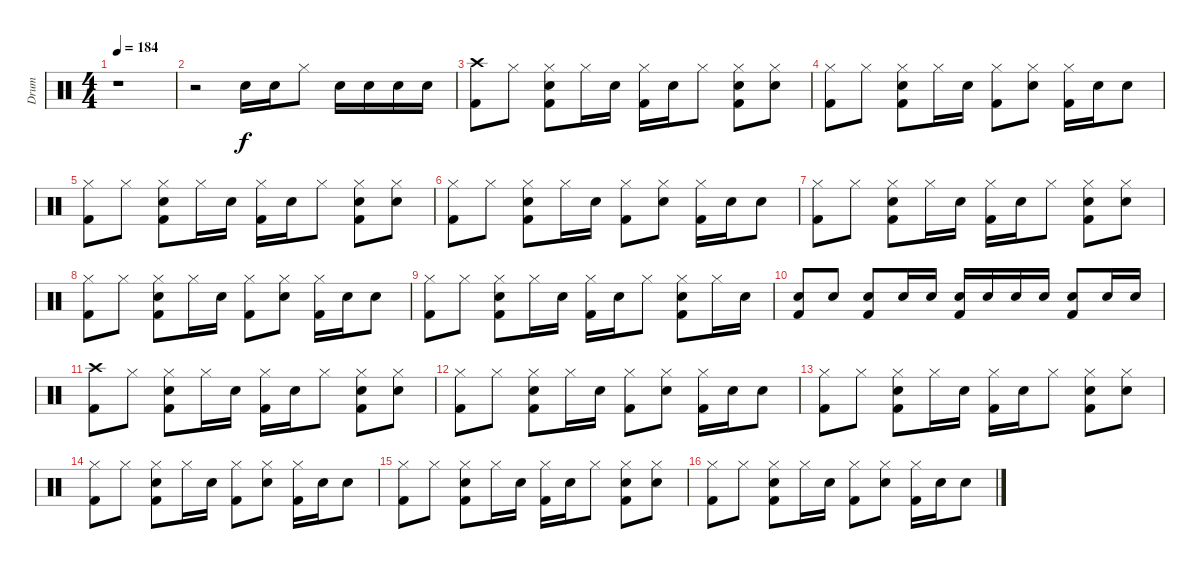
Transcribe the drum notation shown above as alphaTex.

\track ("Drum" "Drum") {instrument percussion}
\staff {score}
\articulation defaults
\ts (4 4)
\tempo 184
\clef neutral
\ks c
r.1{dy f} |
r.2 "Electric Snare (hit)".16 "Electric Snare (hit)".16 "Hi-Hat (closed)".8 "Electric Snare (hit)".16 "Electric Snare (hit)".16 "Electric Snare (hit)".16 "Electric Snare (hit)".16 |
("Crash high (hit)" "Kick (hit) 2").8 "Hi-Hat (closed)".8 ("Hi-Hat (closed)" "Electric Snare (hit)" "Kick (hit) 2").8 "Hi-Hat (closed)".16 "Electric Snare (hit)".16 ("Hi-Hat (closed)" "Kick (hit) 2").16 "Electric Snare (hit)".16 "Hi-Hat (closed)".8 ("Hi-Hat (closed)" "Electric Snare (hit)" "Kick (hit) 2").8 ("Hi-Hat (closed)" "Electric Snare (hit)").8 |
("Hi-Hat (closed)" "Kick (hit) 2").8 "Hi-Hat (closed)".8 ("Hi-Hat (closed)" "Electric Snare (hit)" "Kick (hit) 2").8 "Hi-Hat (closed)".16 "Electric Snare (hit)".16 ("Hi-Hat (closed)" "Kick (hit) 2").8 ("Hi-Hat (closed)" "Electric Snare (hit)").8 ("Hi-Hat (closed)" "Kick (hit) 2").16 "Electric Snare (hit)".16 "Electric Snare (hit)".8 |
("Hi-Hat (closed)" "Kick (hit) 2").8 "Hi-Hat (closed)".8 ("Hi-Hat (closed)" "Electric Snare (hit)" "Kick (hit) 2").8 "Hi-Hat (closed)".16 "Electric Snare (hit)".16 ("Hi-Hat (closed)" "Kick (hit) 2").16 "Electric Snare (hit)".16 "Hi-Hat (closed)".8 ("Hi-Hat (closed)" "Electric Snare (hit)" "Kick (hit) 2").8 ("Hi-Hat (closed)" "Electric Snare (hit)").8 |
("Hi-Hat (closed)" "Kick (hit) 2").8 "Hi-Hat (closed)".8 ("Hi-Hat (closed)" "Electric Snare (hit)" "Kick (hit) 2").8 "Hi-Hat (closed)".16 "Electric Snare (hit)".16 ("Hi-Hat (closed)" "Kick (hit) 2").8 ("Hi-Hat (closed)" "Electric Snare (hit)").8 ("Hi-Hat (closed)" "Kick (hit) 2").16 "Electric Snare (hit)".16 "Electric Snare (hit)".8 |
("Hi-Hat (closed)" "Kick (hit) 2").8 "Hi-Hat (closed)".8 ("Hi-Hat (closed)" "Electric Snare (hit)" "Kick (hit) 2").8 "Hi-Hat (closed)".16 "Electric Snare (hit)".16 ("Hi-Hat (closed)" "Kick (hit) 2").16 "Electric Snare (hit)".16 "Hi-Hat (closed)".8 ("Hi-Hat (closed)" "Electric Snare (hit)" "Kick (hit) 2").8 ("Hi-Hat (closed)" "Electric Snare (hit)").8 |
("Hi-Hat (closed)" "Kick (hit) 2").8 "Hi-Hat (closed)".8 ("Hi-Hat (closed)" "Electric Snare (hit)" "Kick (hit) 2").8 "Hi-Hat (closed)".16 "Electric Snare (hit)".16 ("Hi-Hat (closed)" "Kick (hit) 2").8 ("Hi-Hat (closed)" "Electric Snare (hit)").8 ("Hi-Hat (closed)" "Kick (hit) 2").16 "Electric Snare (hit)".16 "Electric Snare (hit)".8 |
("Hi-Hat (closed)" "Kick (hit) 2").8 "Hi-Hat (closed)".8 ("Hi-Hat (closed)" "Electric Snare (hit)" "Kick (hit) 2").8 "Hi-Hat (closed)".16 "Electric Snare (hit)".16 ("Hi-Hat (closed)" "Kick (hit) 2").16 "Electric Snare (hit)".16 "Hi-Hat (closed)".8 ("Hi-Hat (closed)" "Electric Snare (hit)" "Kick (hit) 2").8 "Hi-Hat (closed)".16 "Electric Snare (hit)".16 |
("Electric Snare (hit)" "Kick (hit) 2").8 "Electric Snare (hit)".8 ("Electric Snare (hit)" "Kick (hit) 2").8 "Electric Snare (hit)".16 "Electric Snare (hit)".16 ("Electric Snare (hit)" "Kick (hit) 2").16 "Electric Snare (hit)".16 "Electric Snare (hit)".16 "Electric Snare (hit)".16 ("Electric Snare (hit)" "Kick (hit) 2").8 "Electric Snare (hit)".16 "Electric Snare (hit)".16 |
("Crash high (hit)" "Kick (hit) 2").8 "Hi-Hat (closed)".8 ("Hi-Hat (closed)" "Electric Snare (hit)" "Kick (hit) 2").8 "Hi-Hat (closed)".16 "Electric Snare (hit)".16 ("Hi-Hat (closed)" "Kick (hit) 2").16 "Electric Snare (hit)".16 "Hi-Hat (closed)".8 ("Hi-Hat (closed)" "Electric Snare (hit)" "Kick (hit) 2").8 ("Hi-Hat (closed)" "Electric Snare (hit)").8 |
("Hi-Hat (closed)" "Kick (hit) 2").8 "Hi-Hat (closed)".8 ("Hi-Hat (closed)" "Electric Snare (hit)" "Kick (hit) 2").8 "Hi-Hat (closed)".16 "Electric Snare (hit)".16 ("Hi-Hat (closed)" "Kick (hit) 2").8 ("Hi-Hat (closed)" "Electric Snare (hit)").8 ("Hi-Hat (closed)" "Kick (hit) 2").16 "Electric Snare (hit)".16 "Electric Snare (hit)".8 |
("Hi-Hat (closed)" "Kick (hit) 2").8 "Hi-Hat (closed)".8 ("Hi-Hat (closed)" "Electric Snare (hit)" "Kick (hit) 2").8 "Hi-Hat (closed)".16 "Electric Snare (hit)".16 ("Hi-Hat (closed)" "Kick (hit) 2").16 "Electric Snare (hit)".16 "Hi-Hat (closed)".8 ("Hi-Hat (closed)" "Electric Snare (hit)" "Kick (hit) 2").8 ("Hi-Hat (closed)" "Electric Snare (hit)").8 |
("Hi-Hat (closed)" "Kick (hit) 2").8 "Hi-Hat (closed)".8 ("Hi-Hat (closed)" "Electric Snare (hit)" "Kick (hit) 2").8 "Hi-Hat (closed)".16 "Electric Snare (hit)".16 ("Hi-Hat (closed)" "Kick (hit) 2").8 ("Hi-Hat (closed)" "Electric Snare (hit)").8 ("Hi-Hat (closed)" "Kick (hit) 2").16 "Electric Snare (hit)".16 "Electric Snare (hit)".8 |
("Hi-Hat (closed)" "Kick (hit) 2").8 "Hi-Hat (closed)".8 ("Hi-Hat (closed)" "Electric Snare (hit)" "Kick (hit) 2").8 "Hi-Hat (closed)".16 "Electric Snare (hit)".16 ("Hi-Hat (closed)" "Kick (hit) 2").16 "Electric Snare (hit)".16 "Hi-Hat (closed)".8 ("Hi-Hat (closed)" "Electric Snare (hit)" "Kick (hit) 2").8 ("Hi-Hat (closed)" "Electric Snare (hit)").8 |
("Hi-Hat (closed)" "Kick (hit) 2").8 "Hi-Hat (closed)".8 ("Hi-Hat (closed)" "Electric Snare (hit)" "Kick (hit) 2").8 "Hi-Hat (closed)".16 "Electric Snare (hit)".16 ("Hi-Hat (closed)" "Kick (hit) 2").8 ("Hi-Hat (closed)" "Electric Snare (hit)").8 ("Hi-Hat (closed)" "Kick (hit) 2").16 "Electric Snare (hit)".16 "Electric Snare (hit)".8
